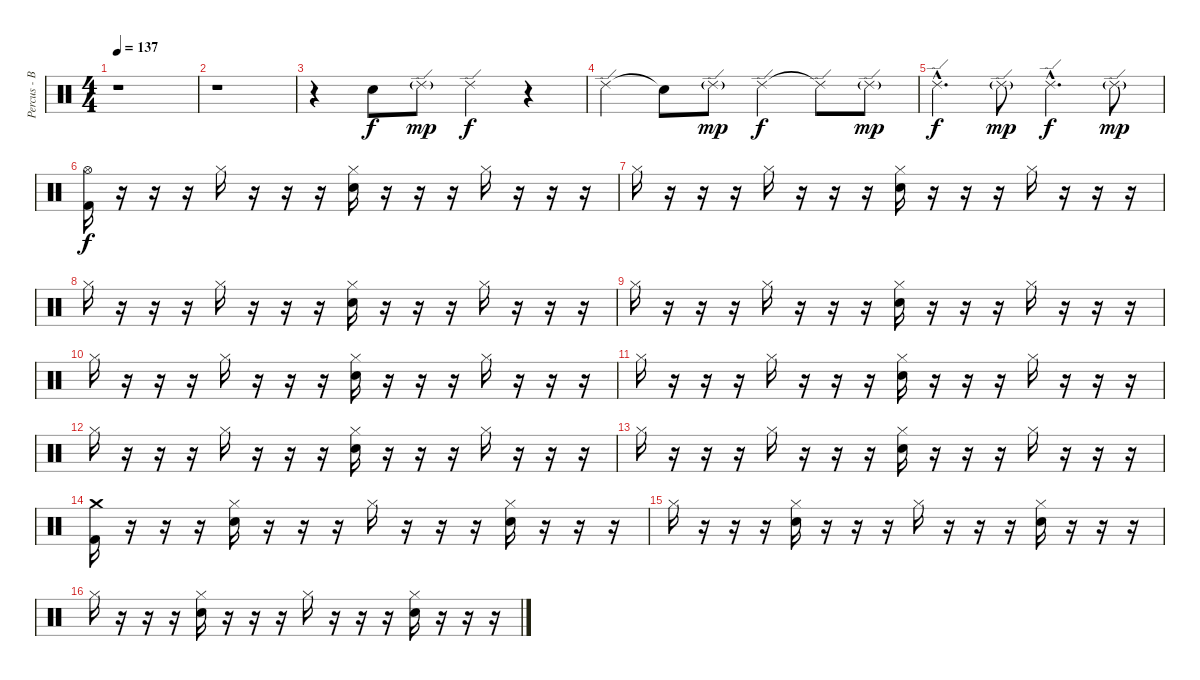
\track ("Percus - Brice" "Percus - B") {instrument percussion}
\staff {score}
\articulation defaults
\ts (4 4)
\tempo 137
\clef neutral
\ks c
r.1{dy mp} |
r.1 |
r.4{volume 6} "Snare (hit)".8{dy f} "Ride (edge) 2"{g}.8{dy mp} "Ride (edge) 2".4{dy f} r.4 |
"Ride (edge) 2".4 "Snare (hit)"{t}.8 "Ride (edge) 2"{g}.8{dy mp} "Ride (edge) 2".4{dy f} "Ride (edge) 2"{t}.8 "Ride (edge) 2"{g}.8{dy mp} |
"Ride (edge) 2"{hac}.4{d dy f} "Ride (edge) 2"{g}.8{dy mp} "Ride (edge) 2"{hac}.4{d dy f} "Ride (edge) 2"{g}.8{dy mp} |
("Hi-Hat (open)" "Kick (hit) 2").16{dy f volume 8} r.16 r.16 r.16 "Hi-Hat (closed)".16 r.16 r.16 r.16 ("Hi-Hat (closed)" "Electric Snare (hit)").16 r.16 r.16 r.16 "Hi-Hat (closed)".16 r.16 r.16 r.16 |
"Hi-Hat (closed)".16 r.16 r.16 r.16 "Hi-Hat (closed)".16 r.16 r.16 r.16 ("Hi-Hat (closed)" "Electric Snare (hit)").16 r.16 r.16 r.16 "Hi-Hat (closed)".16 r.16 r.16 r.16 |
"Hi-Hat (closed)".16 r.16 r.16 r.16 "Hi-Hat (closed)".16 r.16 r.16 r.16 ("Hi-Hat (closed)" "Electric Snare (hit)").16 r.16 r.16 r.16 "Hi-Hat (closed)".16 r.16 r.16 r.16 |
"Hi-Hat (closed)".16 r.16 r.16 r.16 "Hi-Hat (closed)".16 r.16 r.16 r.16 ("Hi-Hat (closed)" "Electric Snare (hit)").16 r.16 r.16 r.16 "Hi-Hat (closed)".16 r.16 r.16 r.16 |
"Hi-Hat (closed)".16 r.16 r.16 r.16 "Hi-Hat (closed)".16 r.16 r.16 r.16 ("Hi-Hat (closed)" "Electric Snare (hit)").16 r.16 r.16 r.16 "Hi-Hat (closed)".16 r.16 r.16 r.16 |
"Hi-Hat (closed)".16 r.16 r.16 r.16 "Hi-Hat (closed)".16 r.16 r.16 r.16 ("Hi-Hat (closed)" "Electric Snare (hit)").16 r.16 r.16 r.16 "Hi-Hat (closed)".16 r.16 r.16 r.16 |
"Hi-Hat (closed)".16 r.16 r.16 r.16 "Hi-Hat (closed)".16 r.16 r.16 r.16 ("Hi-Hat (closed)" "Electric Snare (hit)").16 r.16 r.16 r.16 "Hi-Hat (closed)".16 r.16 r.16 r.16 |
"Hi-Hat (closed)".16 r.16 r.16 r.16 "Hi-Hat (closed)".16 r.16 r.16 r.16 ("Hi-Hat (closed)" "Electric Snare (hit)").16 r.16 r.16 r.16 "Hi-Hat (closed)".16 r.16 r.16 r.16 |
("Crash medium (hit)" "Kick (hit) 2").16{volume 11} r.16 r.16 r.16 ("Hi-Hat (closed)" "Electric Snare (hit)").16 r.16 r.16 r.16 "Hi-Hat (closed)".16 r.16 r.16 r.16 ("Hi-Hat (closed)" "Electric Snare (hit)").16 r.16 r.16 r.16 |
"Hi-Hat (closed)".16 r.16 r.16 r.16 ("Hi-Hat (closed)" "Electric Snare (hit)").16 r.16 r.16 r.16 "Hi-Hat (closed)".16 r.16 r.16 r.16 ("Hi-Hat (closed)" "Electric Snare (hit)").16 r.16 r.16 r.16 |
"Hi-Hat (closed)".16 r.16 r.16 r.16 ("Hi-Hat (closed)" "Electric Snare (hit)").16 r.16 r.16 r.16 "Hi-Hat (closed)".16 r.16 r.16 r.16 ("Hi-Hat (closed)" "Electric Snare (hit)").16 r.16 r.16 r.16
